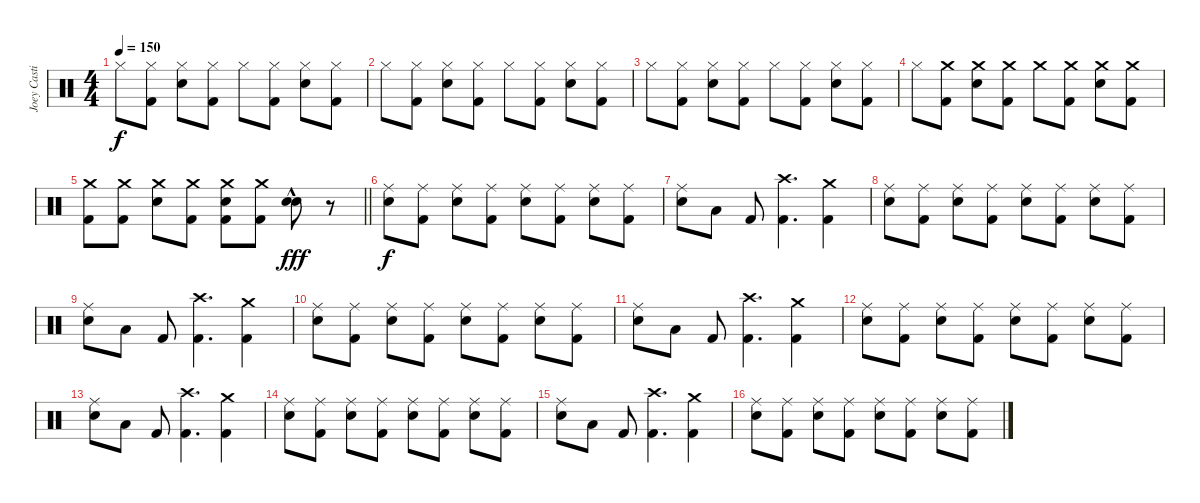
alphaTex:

\track ("Joey Castillo" "Joey Casti") {instrument percussion}
\staff {score}
\articulation defaults
\ts (4 4)
\tempo 150
\clef neutral
\ks c "Hi-Hat (closed)".8{dy f}
("Hi-Hat (closed)" "Kick (hit) 2").8 ("Hi-Hat (closed)" "Snare (hit) 2").8 ("Hi-Hat (closed)" "Kick (hit) 2").8 "Hi-Hat (closed)".8 ("Hi-Hat (closed)" "Kick (hit) 2").8 ("Hi-Hat (closed)" "Snare (hit) 2").8 ("Hi-Hat (closed)" "Kick (hit) 2").8 |
"Hi-Hat (closed)".8 ("Hi-Hat (closed)" "Kick (hit) 2").8 ("Hi-Hat (closed)" "Snare (hit) 2").8 ("Hi-Hat (closed)" "Kick (hit) 2").8 "Hi-Hat (closed)".8 ("Hi-Hat (closed)" "Kick (hit) 2").8 ("Hi-Hat (closed)" "Snare (hit) 2").8 ("Hi-Hat (closed)" "Kick (hit) 2").8 |
"Hi-Hat (closed)".8 ("Hi-Hat (closed)" "Kick (hit) 2").8 ("Hi-Hat (closed)" "Snare (hit) 2").8 ("Hi-Hat (closed)" "Kick (hit) 2").8 "Hi-Hat (closed)".8 ("Hi-Hat (closed)" "Kick (hit) 2").8 ("Hi-Hat (closed)" "Snare (hit) 2").8 ("Hi-Hat (closed)" "Kick (hit) 2").8 |
"Hi-Hat (closed)".8 ("Crash medium (hit)" "Kick (hit) 2").8 ("Crash medium (hit)" "Snare (hit) 2").8 ("Crash medium (hit)" "Kick (hit) 2").8 "Crash medium (hit)".8 ("Crash medium (hit)" "Kick (hit) 2").8 ("Crash medium (hit)" "Snare (hit) 2").8 ("Crash medium (hit)" "Kick (hit) 2").8 |
\barLineRight lightlight
("Crash medium (hit)" "Kick (hit) 2").8 ("Crash medium (hit)" "Kick (hit) 2").8 ("Crash medium (hit)" "Snare (hit) 2").8 ("Crash medium (hit)" "Kick (hit) 2").8 ("Crash medium (hit)" "Snare (hit) 2" "Kick (hit) 2").8 ("Crash medium (hit)" "Kick (hit) 2").8 ("Snare (hit) 2"{hac} "Snare (hit) 2"{hac}).8{bd 240 dy fff} r.8 |
("Ride (middle)" "Snare (hit) 2").8{dy f} ("Ride (middle)" "Kick (hit) 2").8 ("Ride (middle)" "Snare (hit) 2").8 ("Ride (middle)" "Kick (hit) 2").8 ("Ride (middle)" "Snare (hit) 2").8 ("Ride (middle)" "Kick (hit) 2").8 ("Ride (middle)" "Snare (hit) 2").8 ("Ride (middle)" "Kick (hit) 2").8 |
("Ride (middle)" "Snare (hit) 2").8 "Low Tom (hit)".8 "Kick (hit) 2".8 ("Crash high (hit)" "Kick (hit) 2").4{d} ("Crash medium (hit)" "Kick (hit) 2").4 |
("Ride (middle)" "Snare (hit) 2").8 ("Ride (middle)" "Kick (hit) 2").8 ("Ride (middle)" "Snare (hit) 2").8 ("Ride (middle)" "Kick (hit) 2").8 ("Ride (middle)" "Snare (hit) 2").8 ("Ride (middle)" "Kick (hit) 2").8 ("Ride (middle)" "Snare (hit) 2").8 ("Ride (middle)" "Kick (hit) 2").8 |
("Ride (middle)" "Snare (hit) 2").8 "Low Tom (hit)".8 "Kick (hit) 2".8 ("Crash high (hit)" "Kick (hit) 2").4{d} ("Crash medium (hit)" "Kick (hit) 2").4 |
("Ride (middle)" "Snare (hit) 2").8 ("Ride (middle)" "Kick (hit) 2").8 ("Ride (middle)" "Snare (hit) 2").8 ("Ride (middle)" "Kick (hit) 2").8 ("Ride (middle)" "Snare (hit) 2").8 ("Ride (middle)" "Kick (hit) 2").8 ("Ride (middle)" "Snare (hit) 2").8 ("Ride (middle)" "Kick (hit) 2").8 |
("Ride (middle)" "Snare (hit) 2").8 "Low Tom (hit)".8 "Kick (hit) 2".8 ("Crash high (hit)" "Kick (hit) 2").4{d} ("Crash medium (hit)" "Kick (hit) 2").4 |
("Ride (middle)" "Snare (hit) 2").8 ("Ride (middle)" "Kick (hit) 2").8 ("Ride (middle)" "Snare (hit) 2").8 ("Ride (middle)" "Kick (hit) 2").8 ("Ride (middle)" "Snare (hit) 2").8 ("Ride (middle)" "Kick (hit) 2").8 ("Ride (middle)" "Snare (hit) 2").8 ("Ride (middle)" "Kick (hit) 2").8 |
("Ride (middle)" "Snare (hit) 2").8 "Low Tom (hit)".8 "Kick (hit) 2".8 ("Crash high (hit)" "Kick (hit) 2").4{d} ("Crash medium (hit)" "Kick (hit) 2").4 |
("Ride (middle)" "Snare (hit) 2").8 ("Ride (middle)" "Kick (hit) 2").8 ("Ride (middle)" "Snare (hit) 2").8 ("Ride (middle)" "Kick (hit) 2").8 ("Ride (middle)" "Snare (hit) 2").8 ("Ride (middle)" "Kick (hit) 2").8 ("Ride (middle)" "Snare (hit) 2").8 ("Ride (middle)" "Kick (hit) 2").8 |
("Ride (middle)" "Snare (hit) 2").8 "Low Tom (hit)".8 "Kick (hit) 2".8 ("Crash high (hit)" "Kick (hit) 2").4{d} ("Crash medium (hit)" "Kick (hit) 2").4 |
("Ride (middle)" "Snare (hit) 2").8 ("Ride (middle)" "Kick (hit) 2").8 ("Ride (middle)" "Snare (hit) 2").8 ("Ride (middle)" "Kick (hit) 2").8 ("Ride (middle)" "Snare (hit) 2").8 ("Ride (middle)" "Kick (hit) 2").8 ("Ride (middle)" "Snare (hit) 2").8 ("Ride (middle)" "Kick (hit) 2").8
